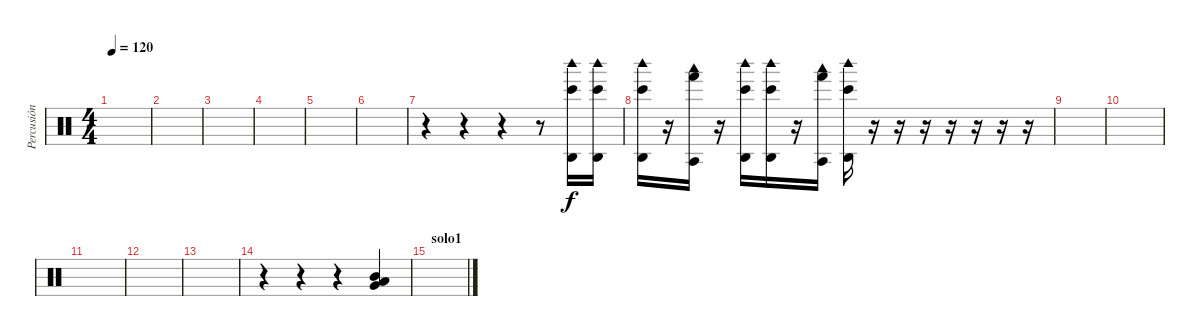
\track ("Percusión" "Percusión") {instrument percussion}
\staff {score}
\articulation defaults
\ts (4 4)
\tempo 120
\clef neutral
\ks c
|
|
|
|
|
|
r.4 r.4 r.4 r.8 ("Agogo high (hit)" "Woodblock high (hit)" "Bongo High (hit)").16 ("Agogo high (hit)" "Woodblock high (hit)" "Bongo High (hit)").16 |
("Agogo high (hit)" "Woodblock high (hit)" "Bongo High (hit)").16 r.16 ("Agogo tow (hit)" "Woodblock low (hit)" "Hand (hit)").16 r.16 ("Agogo high (hit)" "Woodblock high (hit)" "Bongo High (hit)").16 ("Agogo high (hit)" "Woodblock high (hit)" "Bongo High (hit)").16 r.16 ("Agogo tow (hit)" "Woodblock low (hit)" "Hand (hit)").16 ("Agogo high (hit)" "Woodblock high (hit)" "Bongo High (hit)").16 r.16 r.16 r.16 r.16 r.16 r.16 r.16 |
|
|
|
|
|
r.4 r.4 r.4 ("Very Low Tom (hit)" "Low Tom (hit)" "Mid Tom (hit)").4 |
\section ("" "solo1")
